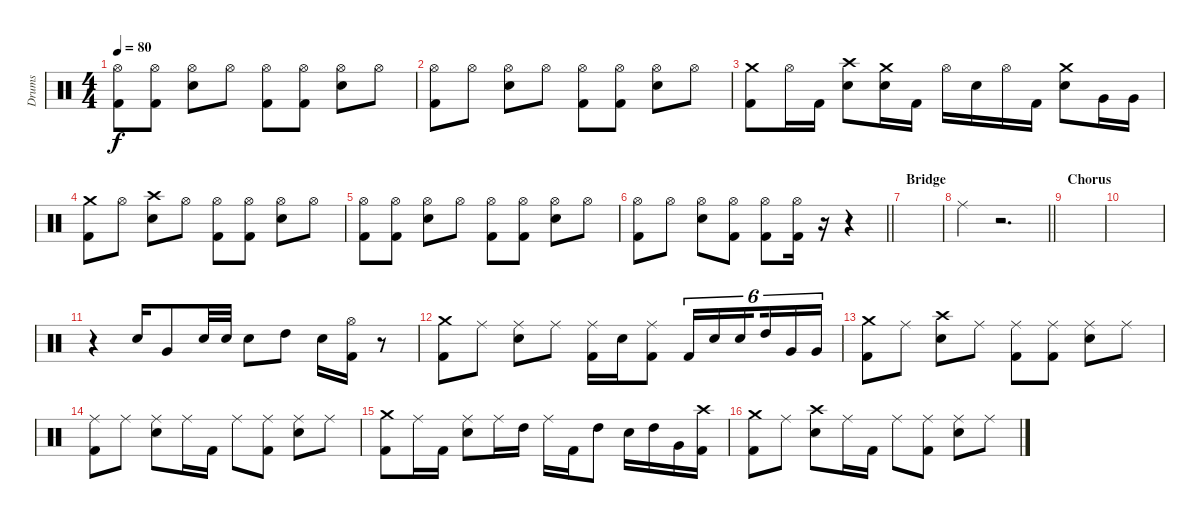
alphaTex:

\track ("Drums" "Drums") {instrument percussion}
\staff {score}
\articulation defaults
\ts (4 4)
\tempo 80
\clef neutral
\ks c
("Hi-Hat (open)" "Kick (hit) 2").8{dy f} ("Hi-Hat (open)" "Kick (hit) 2").8 ("Hi-Hat (open)" "Snare (hit) 2").8 "Hi-Hat (open)".8 ("Hi-Hat (open)" "Kick (hit) 2").8 ("Hi-Hat (open)" "Kick (hit) 2").8 ("Hi-Hat (open)" "Snare (hit) 2").8 "Hi-Hat (open)".8 |
("Hi-Hat (open)" "Kick (hit) 2").8 "Hi-Hat (open)".8 ("Hi-Hat (open)" "Snare (hit) 2").8 "Hi-Hat (open)".8 ("Hi-Hat (open)" "Kick (hit) 2").8 ("Hi-Hat (open)" "Kick (hit) 2").8 ("Hi-Hat (open)" "Snare (hit) 2").8 "Hi-Hat (open)".8 |
("Crash medium (hit)" "Kick (hit) 2").8 "Hi-Hat (open)".16 "Kick (hit) 2".16 ("Crash high (hit)" "Snare (hit) 2").8 ("Crash medium (hit)" "Snare (hit) 2").16 "Kick (hit) 2".16 "Hi-Hat (open)".16 "Snare (hit) 2".16 "Hi-Hat (open)".16 "Kick (hit) 2".16 ("Crash medium (hit)" "Snare (hit) 2").8 "Very Low Tom (hit)".16 "Very Low Tom (hit)".16 |
("Crash medium (hit)" "Kick (hit) 2").8 "Hi-Hat (open)".8 ("Crash high (hit)" "Snare (hit) 2").8 "Hi-Hat (open)".8 ("Hi-Hat (open)" "Kick (hit) 2").8 ("Hi-Hat (open)" "Kick (hit) 2").8 ("Hi-Hat (open)" "Snare (hit) 2").8 "Hi-Hat (open)".8 |
("Hi-Hat (open)" "Kick (hit) 2").8 ("Hi-Hat (open)" "Kick (hit) 2").8 ("Hi-Hat (open)" "Snare (hit) 2").8 "Hi-Hat (open)".8 ("Hi-Hat (open)" "Kick (hit) 2").8 ("Hi-Hat (open)" "Kick (hit) 2").8 ("Hi-Hat (open)" "Snare (hit) 2").8 "Hi-Hat (open)".8 |
\barLineRight lightlight
("Hi-Hat (open)" "Kick (hit) 2").8 "Hi-Hat (open)".8 ("Hi-Hat (open)" "Snare (hit) 2").8 ("Hi-Hat (open)" "Kick (hit) 2").8 ("Hi-Hat (open)" "Kick (hit) 2").8 ("Hi-Hat (open)" "Kick (hit) 2").16 r.16 r.4 |
\section ("" "Bridge")
|
\barLineRight lightlight "Ride (middle)".4
r.2{d} |
\section ("" "Chorus")
|
|
r.4 "Snare (hit) 2".16 "Very Low Tom (hit)".8 "Snare (hit) 2".32 "Snare (hit) 2".32 "Snare (hit) 2".8 "High Tom (hit)".8 "Snare (hit) 2".16 ("Hi-Hat (open)" "Kick (hit) 2").16 r.8 |
("Crash medium (hit)" "Kick (hit) 2").8 "Ride (middle)".8 ("Ride (middle)" "Snare (hit) 2").8 "Ride (middle)".8 ("Ride (middle)" "Kick (hit) 2").16 "Snare (hit) 2".16 ("Ride (middle)" "Kick (hit) 2").8 "Kick (hit) 2".16{tu (6 4)} "Snare (hit) 2".16{tu (6 4)} "Snare (hit) 2".16{tu (6 4) beam splitsecondary} "High Tom (hit)".16{tu (6 4)} "Very Low Tom (hit)".16{tu (6 4)} "Very Low Tom (hit)".16{tu (6 4)} |
("Crash medium (hit)" "Kick (hit) 2").8 "Ride (middle)".8 ("Crash high (hit)" "Snare (hit) 2").8 "Ride (middle)".8 ("Ride (middle)" "Kick (hit) 2").8 ("Ride (middle)" "Kick (hit) 2").8 ("Ride (middle)" "Snare (hit) 2").8 "Ride (middle)".8 |
("Ride (middle)" "Kick (hit) 2").8 "Ride (middle)".8 ("Ride (middle)" "Snare (hit) 2").8 "Ride (middle)".16 "Kick (hit) 2".16 "Ride (middle)".8 ("Ride (middle)" "Kick (hit) 2").8 ("Ride (middle)" "Snare (hit) 2").8 "Ride (middle)".8 |
("Crash medium (hit)" "Kick (hit) 2").8 "Ride (middle)".16 "Kick (hit) 2".16 ("Ride (middle)" "Snare (hit) 2").8 "Ride (middle)".16 "High Tom (hit)".16 "Ride (middle)".16 "Kick (hit) 2".16 "High Tom (hit)".8 "Snare (hit) 2".16 "High Tom (hit)".16 "Very Low Tom (hit)".16 ("Crash high (hit)" "Kick (hit) 2").16 |
("Crash medium (hit)" "Kick (hit) 2").8 "Ride (middle)".8 ("Crash high (hit)" "Snare (hit) 2").8 "Ride (middle)".16 "Kick (hit) 2".16 "Ride (middle)".8 ("Ride (middle)" "Kick (hit) 2").8 ("Ride (middle)" "Snare (hit) 2").8 "Ride (middle)".8
